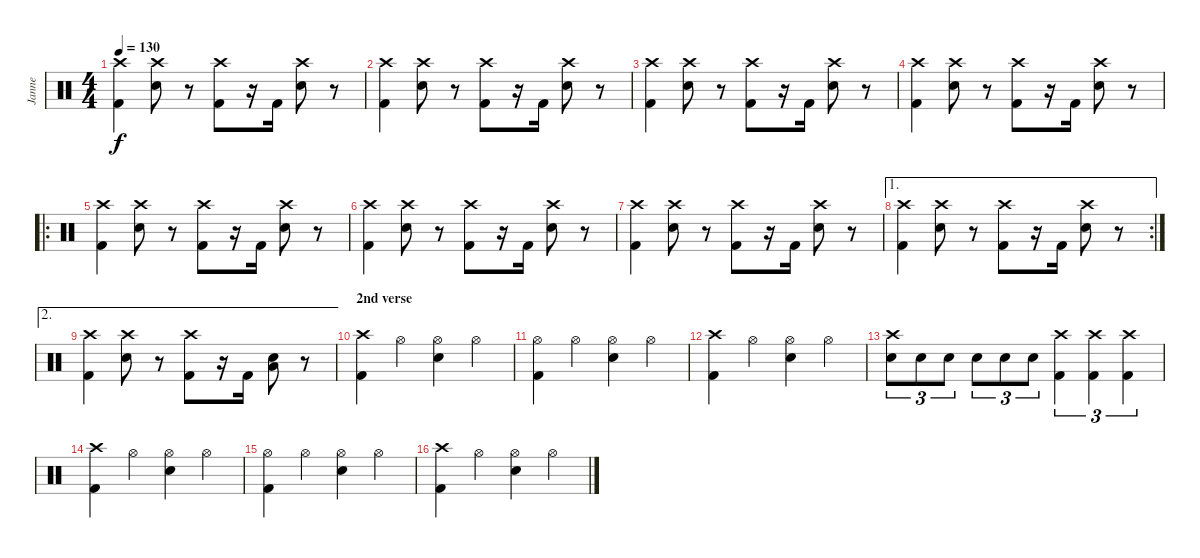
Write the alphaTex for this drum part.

\track ("Janne" "Janne") {instrument percussion}
\staff {score}
\articulation defaults
\ts (4 4)
\tempo 130
\clef neutral
\ks c
("Crash high (hit)" "Kick (hit) 2").4{dy f} ("Crash high (hit)" "Electric Snare (hit)").8 r.8 ("Crash high (hit)" "Kick (hit) 2").8 r.16 "Kick (hit) 2".16 ("Crash high (hit)" "Electric Snare (hit)").8 r.8 |
("Crash high (hit)" "Kick (hit) 2").4 ("Crash high (hit)" "Electric Snare (hit)").8 r.8 ("Crash high (hit)" "Kick (hit) 2").8 r.16 "Kick (hit) 2".16 ("Crash high (hit)" "Electric Snare (hit)").8 r.8 |
("Crash high (hit)" "Kick (hit) 2").4 ("Crash high (hit)" "Electric Snare (hit)").8 r.8 ("Crash high (hit)" "Kick (hit) 2").8 r.16 "Kick (hit) 2".16 ("Crash high (hit)" "Electric Snare (hit)").8 r.8 |
("Crash high (hit)" "Kick (hit) 2").4 ("Crash high (hit)" "Electric Snare (hit)").8 r.8 ("Crash high (hit)" "Kick (hit) 2").8 r.16 "Kick (hit) 2".16 ("Crash high (hit)" "Electric Snare (hit)").8 r.8 |
\ro
("Crash high (hit)" "Kick (hit) 2").4 ("Crash high (hit)" "Electric Snare (hit)").8 r.8 ("Crash high (hit)" "Kick (hit) 2").8 r.16 "Kick (hit) 2".16 ("Crash high (hit)" "Electric Snare (hit)").8 r.8 |
("Crash high (hit)" "Kick (hit) 2").4 ("Crash high (hit)" "Electric Snare (hit)").8 r.8 ("Crash high (hit)" "Kick (hit) 2").8 r.16 "Kick (hit) 2".16 ("Crash high (hit)" "Electric Snare (hit)").8 r.8 |
("Crash high (hit)" "Kick (hit) 2").4 ("Crash high (hit)" "Electric Snare (hit)").8 r.8 ("Crash high (hit)" "Kick (hit) 2").8 r.16 "Kick (hit) 2".16 ("Crash high (hit)" "Electric Snare (hit)").8 r.8 |
\ae 1
\rc 2
("Crash high (hit)" "Kick (hit) 2").4 ("Crash high (hit)" "Electric Snare (hit)").8 r.8 ("Crash high (hit)" "Kick (hit) 2").8 r.16 "Kick (hit) 2".16 ("Crash high (hit)" "Electric Snare (hit)").8 r.8 |
\ae 2
("Crash high (hit)" "Kick (hit) 2").4 ("Crash high (hit)" "Electric Snare (hit)").8 r.8 ("Crash high (hit)" "Kick (hit) 2").8 r.16 "Kick (hit) 2".16 ("Low Floor Tom (hit)" "Electric Snare (hit)").8 r.8 |
\section ("" "2nd verse")
("Crash high (hit)" "Kick (hit) 2").4 "Hi-Hat (open)".4 ("Hi-Hat (open)" "Electric Snare (hit)").4 "Hi-Hat (open)".4 |
("Hi-Hat (open)" "Kick (hit) 2").4 "Hi-Hat (open)".4 ("Hi-Hat (open)" "Electric Snare (hit)").4 "Hi-Hat (open)".4 |
("Crash high (hit)" "Kick (hit) 2").4 "Hi-Hat (open)".4 ("Hi-Hat (open)" "Electric Snare (hit)").4 "Hi-Hat (open)".4 |
("Crash high (hit)" "Electric Snare (hit)").8{tu (3 2)} "Electric Snare (hit)".8{tu (3 2)} "Electric Snare (hit)".8{tu (3 2)} "Electric Snare (hit)".8{tu (3 2)} "Electric Snare (hit)".8{tu (3 2)} "Electric Snare (hit)".8{tu (3 2)} ("Crash high (hit)" "Kick (hit) 2").4{tu (3 2)} ("Crash high (hit)" "Kick (hit) 2").4{tu (3 2)} ("Crash high (hit)" "Kick (hit) 2").4{tu (3 2)} |
("Crash high (hit)" "Kick (hit) 2").4 "Hi-Hat (open)".4 ("Hi-Hat (open)" "Electric Snare (hit)").4 "Hi-Hat (open)".4 |
("Hi-Hat (open)" "Kick (hit) 2").4 "Hi-Hat (open)".4 ("Hi-Hat (open)" "Electric Snare (hit)").4 "Hi-Hat (open)".4 |
("Crash high (hit)" "Kick (hit) 2").4 "Hi-Hat (open)".4 ("Hi-Hat (open)" "Electric Snare (hit)").4 "Hi-Hat (open)".4
